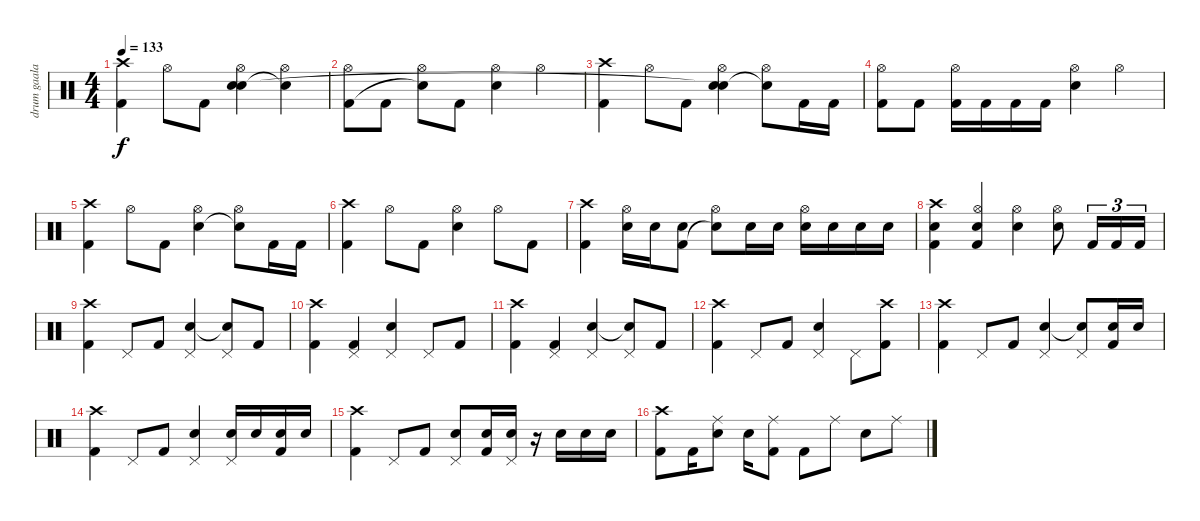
\track ("drum gaalaas" "drum gaala") {instrument percussion}
\staff {score}
\articulation defaults
\ts (4 4)
\tempo 133
\clef neutral
\ks c
("Crash high (hit)" "Kick (hit) 2").4{dy f} "Hi-Hat (open)".8 "Kick (hit) 2".8 ("Hi-Hat (open)" "Snare (hit) 2" "Snare (hit)"{t}).4 ("Hi-Hat (open)" "Snare (hit)"{t}).4 |
("Hi-Hat (open)" "Kick (hit) 2").8 "Kick (hit) 2".8 ("Hi-Hat (open)" "Snare (hit)"{t}).8 "Kick (hit) 2".8 ("Hi-Hat (open)" "Snare (hit) 2").4 "Hi-Hat (open)".4 |
("Crash high (hit)" "Kick (hit) 2").4 "Hi-Hat (open)".8 "Kick (hit) 2".8 ("Hi-Hat (open)" "Snare (hit) 2" "Snare (hit)"{t}).4 ("Hi-Hat (open)" "Snare (hit)"{t}).8 "Kick (hit) 2".16 "Kick (hit) 2".16 |
("Hi-Hat (open)" "Kick (hit) 2").8 "Kick (hit) 2".8 ("Hi-Hat (open)" "Kick (hit) 2").16 "Kick (hit) 2".16 "Kick (hit) 2".16 "Kick (hit) 2".16 ("Hi-Hat (open)" "Snare (hit) 2").4 "Hi-Hat (open)".4 |
("Crash high (hit)" "Kick (hit) 2").4 "Hi-Hat (open)".8 "Kick (hit) 2".8 ("Hi-Hat (open)" "Snare (hit) 2").4 ("Hi-Hat (open)" "Snare (hit)"{t}).8 "Kick (hit) 2".16 "Kick (hit) 2".16 |
("Crash high (hit)" "Kick (hit) 2").4 "Hi-Hat (open)".8 "Kick (hit) 2".8 ("Hi-Hat (open)" "Snare (hit) 2").4 "Hi-Hat (open)".8 "Kick (hit) 2".8 |
("Crash high (hit)" "Kick (hit) 2").4 ("Hi-Hat (open)" "Snare (hit) 2").16 "Snare (hit) 2".16 ("Snare (hit) 2" "Kick (hit) 2").8 ("Hi-Hat (open)" "Snare (hit)"{t}).8 "Electric Snare (hit)".16 "Electric Snare (hit)".16 ("Hi-Hat (open)" "Electric Snare (hit)").16 "Snare (hit) 2".16 "Snare (hit) 2".16 "Snare (hit) 2".16 |
("Crash high (hit)" "Snare (hit) 2" "Kick (hit) 2").4 ("Hi-Hat (open)" "Snare (hit) 2" "Kick (hit) 2").4 ("Hi-Hat (open)" "Electric Snare (hit)").4 ("Hi-Hat (open)" "Snare (hit) 2").8 "Kick (hit) 2".16{tu (3 2)} "Kick (hit) 2".16{tu (3 2)} "Kick (hit) 2".16{tu (3 2)} |
("Crash high (hit)" "Kick (hit) 2").4 "Pedal Hi-Hat (hit)".8 "Kick (hit) 2".8 ("Pedal Hi-Hat (hit)" "Snare (hit) 2").4 ("Pedal Hi-Hat (hit)" "Snare (hit)"{t}).8 "Kick (hit) 2".8 |
("Crash high (hit)" "Kick (hit) 2").4 ("Pedal Hi-Hat (hit)" "Kick (hit) 2").4 ("Pedal Hi-Hat (hit)" "Snare (hit) 2").4 "Pedal Hi-Hat (hit)".8 "Kick (hit) 2".8 |
("Crash high (hit)" "Kick (hit) 2").4 ("Pedal Hi-Hat (hit)" "Kick (hit) 2").4 ("Pedal Hi-Hat (hit)" "Snare (hit) 2").4 ("Pedal Hi-Hat (hit)" "Snare (hit)"{t}).8 "Kick (hit) 2".8 |
("Crash high (hit)" "Kick (hit) 2").4 "Pedal Hi-Hat (hit)".8 "Kick (hit) 2".8 ("Pedal Hi-Hat (hit)" "Snare (hit) 2").4 "Pedal Hi-Hat (hit)".8 ("Crash high (hit)" "Kick (hit) 2").8 |
("Crash high (hit)" "Kick (hit) 2").4 "Pedal Hi-Hat (hit)".8 "Kick (hit) 2".8 ("Pedal Hi-Hat (hit)" "Snare (hit) 2").4 ("Pedal Hi-Hat (hit)" "Snare (hit)"{t}).8 ("Snare (hit) 2" "Kick (hit) 2").16 "Snare (hit) 2".16 |
("Crash high (hit)" "Kick (hit) 2").4 "Pedal Hi-Hat (hit)".8 "Kick (hit) 2".8 ("Pedal Hi-Hat (hit)" "Snare (hit) 2").4 ("Pedal Hi-Hat (hit)" "Electric Snare (hit)").16 "Electric Snare (hit)".16 ("Electric Snare (hit)" "Kick (hit) 2").16 "Electric Snare (hit)".16 |
("Crash high (hit)" "Kick (hit) 2").4 "Pedal Hi-Hat (hit)".8 "Kick (hit) 2".8 ("Pedal Hi-Hat (hit)" "Snare (hit) 2").8 ("Snare (hit) 2" "Kick (hit) 2").16 ("Pedal Hi-Hat (hit)" "Snare (hit) 2").16 r.16 "Snare (hit) 2".16 "Snare (hit) 2".16 "Snare (hit) 2".16 |
("Crash high (hit)" "Kick (hit) 2").8 "Kick (hit) 2".16 ("Ride (middle)" "Snare (hit) 2").8 "Snare (hit) 2".16 ("Ride (middle)" "Kick (hit) 2").8 "Kick (hit) 2".8 "Ride (middle)".8 "Snare (hit) 2".8 "Ride (middle)".8
